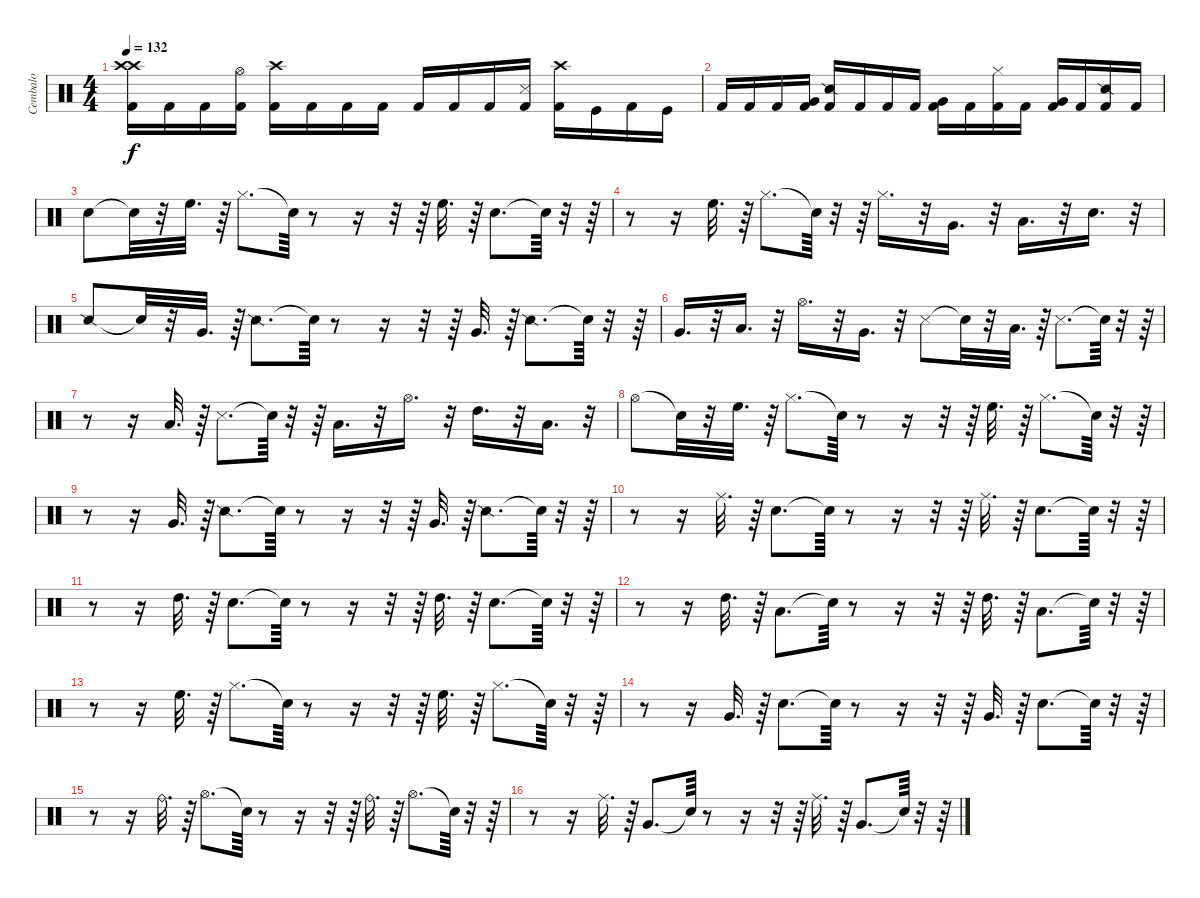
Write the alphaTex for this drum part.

\track ("Cembalo" "Cembalo") {instrument percussion}
\staff {score}
\articulation defaults
\ts (4 4)
\tempo 132
\clef neutral
\ks c
("Crash high (hit)" "Kick (hit) 2" "Crash high (hit)").16{dy f} "Kick (hit) 2".16 "Kick (hit) 2".16 ("Hi-Hat (open)" "Kick (hit) 2").16 ("Crash high (hit)" "Kick (hit) 2").16 "Kick (hit) 2".16 "Kick (hit) 2".16 "Kick (hit) 2".16 "Kick (hit) 2".16 "Kick (hit) 2".16 "Kick (hit) 2".16 ("Metronome (hit)" "Kick (hit) 2").16 ("Crash high (hit)" "Kick (hit) 2").16 "Kick (hit)".16 "Kick (hit) 2".16 "Kick (hit)".16 |
"Kick (hit) 2".16 "Kick (hit) 2".16 "Kick (hit) 2".16 ("Very Low Tom (hit)" "Kick (hit) 2").16 ("Snare (side stick) 2" "Kick (hit) 2").16 "Kick (hit) 2".16 "Kick (hit) 2".16 "Kick (hit) 2".16 ("Very Low Tom (hit)" "Kick (hit) 2").16 "Kick (hit) 2".16 ("Hi-Hat (closed)" "Kick (hit) 2").16 "Kick (hit) 2".16 ("Very Low Tom (hit)" "Kick (hit) 2").16 "Kick (hit) 2".16 ("Snare (side stick) 2" "Kick (hit) 2").16 "Kick (hit) 2".16 |
"Snare (hit) 2".8 "Snare (hit)"{t}.32 r.32 "High Floor Tom (hit)".32{d} r.64 "Hi-Hat (closed)".8{d} "Snare (hit)"{t}.64 r.8 r.16 r.32 r.64 "High Floor Tom (hit)".32{d} r.64 "Snare (hit) 2".8{d} "Snare (hit)"{t}.64 r.32 r.64 |
r.8 r.16 "High Floor Tom (hit)".32{d} r.64 "Hi-Hat (closed)".8{d} "Snare (hit)"{t}.64 r.32 r.64 "Hi-Hat (closed)".16{d} r.32 "Very Low Tom (hit)".16{d} r.32 "Low Tom (hit)".16{d} r.32 "Snare (hit) 2".16{d} r.32 |
"Snare (side stick) 2".8 "Snare (hit)"{t}.32 r.32 "Very Low Tom (hit)".32{d} r.64 "Snare (side stick) 2".8{d} "Snare (hit)"{t}.64 r.8 r.16 r.32 r.64 "Very Low Tom (hit)".32{d} r.64 "Snare (side stick) 2".8{d} "Snare (hit)"{t}.64 r.32 r.64 |
"Very Low Tom (hit)".16{d} r.32 "Low Tom (hit)".16{d} r.32 "Hi-Hat (open)".16{d} r.32 "Very Low Tom (hit)".16{d} r.32 "Metronome (hit)".8 "Snare (hit)"{t}.32 r.32 "Low Tom (hit)".32{d} r.64 "Metronome (hit)".8{d} "Snare (hit)"{t}.64 r.32 r.64 |
r.8 r.16 "Low Tom (hit)".32{d} r.64 "Metronome (hit)".8{d} "Snare (hit)"{t}.64 r.32 r.64 "Low Tom (hit)".16{d} r.32 "Hi-Hat (open)".16{d} r.32 "High Tom (hit)".16{d} r.32 "Low Tom (hit)".16{d} r.32 |
"Hi-Hat (open)".8 "Snare (hit)"{t}.32 r.32 "High Floor Tom (hit)".32{d} r.64 "Hi-Hat (closed)".8{d} "Snare (hit)"{t}.64 r.8 r.16 r.32 r.64 "High Floor Tom (hit)".32{d} r.64 "Hi-Hat (closed)".8{d} "Snare (hit)"{t}.64 r.32 r.64 |
r.8 r.16 "Very Low Tom (hit)".32{d} r.64 "Snare (side stick) 2".8{d} "Snare (hit)"{t}.64 r.8 r.16 r.32 r.64 "Very Low Tom (hit)".32{d} r.64 "Snare (side stick) 2".8{d} "Snare (hit)"{t}.64 r.32 r.64 |
r.8 r.16 "Ride (middle)".32{d} r.64 "Hand Clap (hit)".8{d} "Snare (hit)"{t}.64 r.8 r.16 r.32 r.64 "Ride (middle)".32{d} r.64 "Hand Clap (hit)".8{d} "Snare (hit)"{t}.64 r.32 r.64 |
r.8 r.16 "High Tom (hit)".32{d} r.64 "Electric Snare (hit)".8{d} "Snare (hit)"{t}.64 r.8 r.16 r.32 r.64 "High Tom (hit)".32{d} r.64 "Electric Snare (hit)".8{d} "Snare (hit)"{t}.64 r.32 r.64 |
r.8 r.16 "High Tom (hit)".32{d} r.64 "Low Floor Tom (hit)".8{d} "Snare (hit)"{t}.64 r.8 r.16 r.32 r.64 "High Tom (hit)".32{d} r.64 "Low Floor Tom (hit)".8{d} "Snare (hit)"{t}.64 r.32 r.64 |
r.8 r.16 "High Floor Tom (hit)".32{d} r.64 "Hi-Hat (closed)".8{d} "Snare (hit)"{t}.64 r.8 r.16 r.32 r.64 "High Floor Tom (hit)".32{d} r.64 "Hi-Hat (closed)".8{d} "Snare (hit)"{t}.64 r.32 r.64 |
r.8 r.16 "Very Low Tom (hit)".32{d} r.64 "Metronome (bell)".8{d} "Snare (hit)"{t}.64 r.8 r.16 r.32 r.64 "Very Low Tom (hit)".32{d} r.64 "Metronome (bell)".8{d} "Snare (hit)"{t}.64 r.32 r.64 |
r.8 r.16 "Ride (bell)".32{d} r.64 "Hi-Hat (open)".8{d} "Snare (hit)"{t}.64 r.8 r.16 r.32 r.64 "Ride (bell)".32{d} r.64 "Hi-Hat (open)".8{d} "Snare (hit)"{t}.64 r.32 r.64 |
r.8 r.16 "Ride (middle)".32{d} r.64 "Very Low Tom (hit)".8{d} "Snare (hit)"{t}.64 r.8 r.16 r.32 r.64 "Ride (middle)".32{d} r.64 "Very Low Tom (hit)".8{d} "Snare (hit)"{t}.64 r.32 r.64
